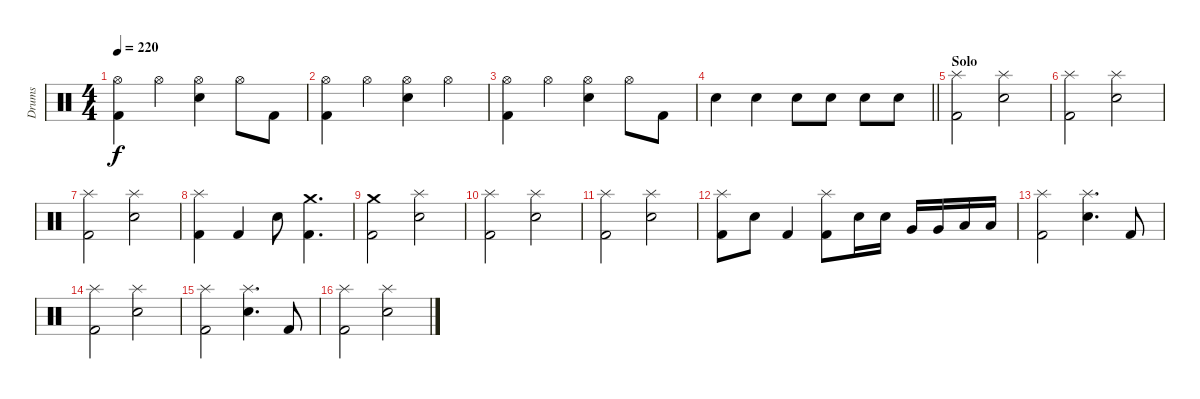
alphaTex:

\track ("Drums" "Drums") {instrument percussion}
\staff {score}
\articulation defaults
\ts (4 4)
\tempo 220
\clef neutral
\ks c
("Hi-Hat (open)" "Kick (hit) 2").4{dy f} "Hi-Hat (open)".4 ("Hi-Hat (open)" "Electric Snare (hit)").4 "Hi-Hat (open)".8 "Kick (hit) 2".8 |
("Hi-Hat (open)" "Kick (hit) 2").4 "Hi-Hat (open)".4 ("Hi-Hat (open)" "Electric Snare (hit)").4 "Hi-Hat (open)".4 |
("Hi-Hat (open)" "Kick (hit) 2").4 "Hi-Hat (open)".4 ("Hi-Hat (open)" "Electric Snare (hit)").4 "Hi-Hat (open)".8 "Kick (hit) 2".8 |
\barLineRight lightlight "Electric Snare (hit)".4 "Electric Snare (hit)".4 "Electric Snare (hit)".8 "Electric Snare (hit)".8 "Electric Snare (hit)".8 "Electric Snare (hit)".8
|
\section ("" "Solo")
("Splash (hit)" "Kick (hit) 2").2 ("Splash (hit)" "Snare (hit) 2").2 |
("Splash (hit)" "Kick (hit) 2").2 ("Splash (hit)" "Snare (hit) 2").2 |
("Splash (hit)" "Kick (hit) 2").2 ("Splash (hit)" "Snare (hit) 2").2 |
("Splash (hit)" "Kick (hit) 2").4 "Kick (hit) 2".4 "Snare (hit) 2".8 ("Crash medium (hit)" "Kick (hit) 2").4{d} |
("Crash medium (hit)" "Kick (hit) 2").2 ("Splash (hit)" "Snare (hit) 2").2 |
("Splash (hit)" "Kick (hit) 2").2 ("Splash (hit)" "Snare (hit) 2").2 |
("Splash (hit)" "Kick (hit) 2").2 ("Splash (hit)" "Snare (hit) 2").2 |
("Splash (hit)" "Kick (hit) 2").8 "Snare (hit) 2".8 "Kick (hit) 2".4 ("Splash (hit)" "Kick (hit) 2").8 "Electric Snare (hit)".16 "Electric Snare (hit)".16 "Very Low Tom (hit)".16 "Very Low Tom (hit)".16 "Low Floor Tom (hit)".16 "Low Floor Tom (hit)".16 |
("Splash (hit)" "Kick (hit) 2").2 ("Splash (hit)" "Snare (hit) 2").4{d} "Kick (hit) 2".8 |
("Splash (hit)" "Kick (hit) 2").2 ("Splash (hit)" "Snare (hit) 2").2 |
("Splash (hit)" "Kick (hit) 2").2 ("Splash (hit)" "Snare (hit) 2").4{d} "Kick (hit) 2".8 |
("Splash (hit)" "Kick (hit) 2").2 ("Splash (hit)" "Snare (hit) 2").2
